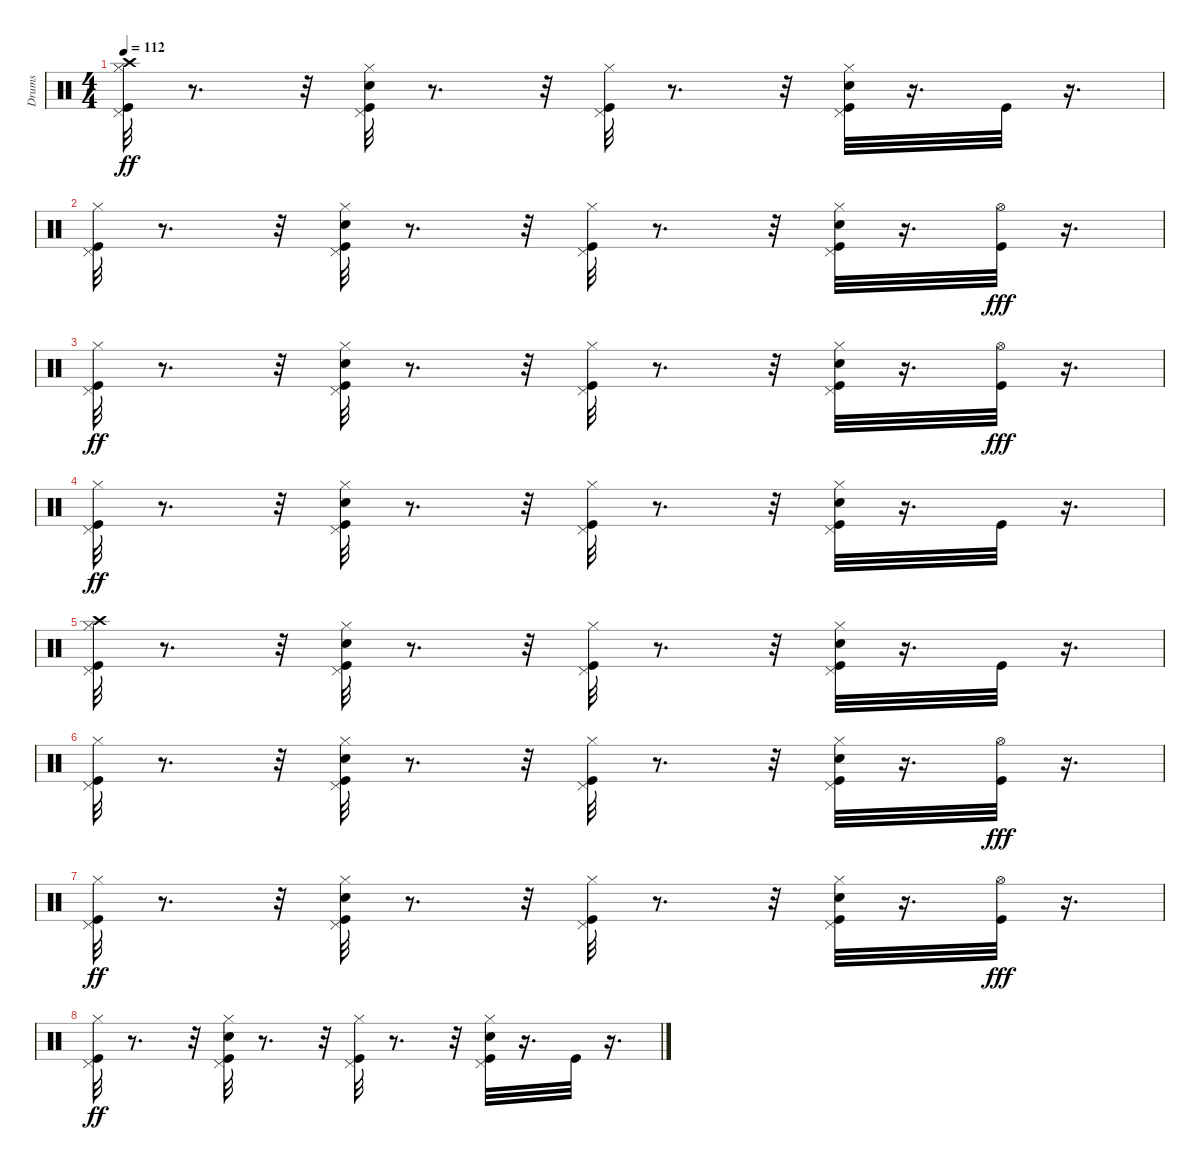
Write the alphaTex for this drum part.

\track ("Drums" "Drums") {instrument percussion}
\staff {score}
\articulation defaults
\ts (4 4)
\tempo 112
\clef neutral
\ks c
("Hi-Hat (closed)" "Crash high (hit)" "Kick (hit)" "Pedal Hi-Hat (hit)").32{dy ff} r.8{d} r.32 ("Snare (hit) 2" "Pedal Hi-Hat (hit)" "Kick (hit)" "Hi-Hat (closed)").32 r.8{d} r.32 ("Kick (hit)" "Pedal Hi-Hat (hit)" "Hi-Hat (closed)").32 r.8{d} r.32 ("Snare (hit) 2" "Kick (hit)" "Pedal Hi-Hat (hit)" "Hi-Hat (closed)").32 r.16{d} "Kick (hit)".32 r.16{d} |
("Hi-Hat (closed)" "Kick (hit)" "Pedal Hi-Hat (hit)").32 r.8{d} r.32 ("Pedal Hi-Hat (hit)" "Snare (hit) 2" "Hi-Hat (closed)" "Kick (hit)").32 r.8{d} r.32 ("Pedal Hi-Hat (hit)" "Kick (hit)" "Hi-Hat (closed)").32 r.8{d} r.32 ("Kick (hit)" "Pedal Hi-Hat (hit)" "Snare (hit) 2" "Hi-Hat (closed)").32 r.16{d} ("Kick (hit)" "Hi-Hat (open)").32{dy fff} r.16{d} |
("Pedal Hi-Hat (hit)" "Kick (hit)" "Hi-Hat (closed)").32{dy ff} r.8{d} r.32 ("Kick (hit)" "Hi-Hat (closed)" "Snare (hit) 2" "Pedal Hi-Hat (hit)").32 r.8{d} r.32 ("Pedal Hi-Hat (hit)" "Kick (hit)" "Hi-Hat (closed)").32 r.8{d} r.32 ("Pedal Hi-Hat (hit)" "Hi-Hat (closed)" "Kick (hit)" "Snare (hit) 2").32 r.16{d} ("Kick (hit)" "Hi-Hat (open)").32{dy fff} r.16{d} |
("Hi-Hat (closed)" "Pedal Hi-Hat (hit)" "Kick (hit)").32{dy ff} r.8{d} r.32 ("Kick (hit)" "Hi-Hat (closed)" "Snare (hit) 2" "Pedal Hi-Hat (hit)").32 r.8{d} r.32 ("Kick (hit)" "Hi-Hat (closed)" "Pedal Hi-Hat (hit)").32 r.8{d} r.32 ("Pedal Hi-Hat (hit)" "Kick (hit)" "Snare (hit) 2" "Hi-Hat (closed)").32 r.16{d} "Kick (hit)".32 r.16{d} |
("Kick (hit)" "Pedal Hi-Hat (hit)" "Crash high (hit)" "Hi-Hat (closed)").32 r.8{d} r.32 ("Hi-Hat (closed)" "Kick (hit)" "Pedal Hi-Hat (hit)" "Snare (hit) 2").32 r.8{d} r.32 ("Pedal Hi-Hat (hit)" "Kick (hit)" "Hi-Hat (closed)").32 r.8{d} r.32 ("Hi-Hat (closed)" "Snare (hit) 2" "Pedal Hi-Hat (hit)" "Kick (hit)").32 r.16{d} "Kick (hit)".32 r.16{d} |
("Pedal Hi-Hat (hit)" "Hi-Hat (closed)" "Kick (hit)").32 r.8{d} r.32 ("Kick (hit)" "Hi-Hat (closed)" "Snare (hit) 2" "Pedal Hi-Hat (hit)").32 r.8{d} r.32 ("Kick (hit)" "Pedal Hi-Hat (hit)" "Hi-Hat (closed)").32 r.8{d} r.32 ("Pedal Hi-Hat (hit)" "Hi-Hat (closed)" "Snare (hit) 2" "Kick (hit)").32 r.16{d} ("Kick (hit)" "Hi-Hat (open)").32{dy fff} r.16{d} |
("Hi-Hat (closed)" "Kick (hit)" "Pedal Hi-Hat (hit)").32{dy ff} r.8{d} r.32 ("Pedal Hi-Hat (hit)" "Kick (hit)" "Snare (hit) 2" "Hi-Hat (closed)").32 r.8{d} r.32 ("Hi-Hat (closed)" "Pedal Hi-Hat (hit)" "Kick (hit)").32 r.8{d} r.32 ("Pedal Hi-Hat (hit)" "Hi-Hat (closed)" "Snare (hit) 2" "Kick (hit)").32 r.16{d} ("Kick (hit)" "Hi-Hat (open)").32{dy fff} r.16{d} |
("Kick (hit)" "Hi-Hat (closed)" "Pedal Hi-Hat (hit)").32{dy ff} r.8{d} r.32 ("Snare (hit) 2" "Pedal Hi-Hat (hit)" "Hi-Hat (closed)" "Kick (hit)").32 r.8{d} r.32 ("Kick (hit)" "Pedal Hi-Hat (hit)" "Hi-Hat (closed)").32 r.8{d} r.32 ("Pedal Hi-Hat (hit)" "Hi-Hat (closed)" "Snare (hit) 2" "Kick (hit)").32 r.16{d} "Kick (hit)".32 r.16{d}
